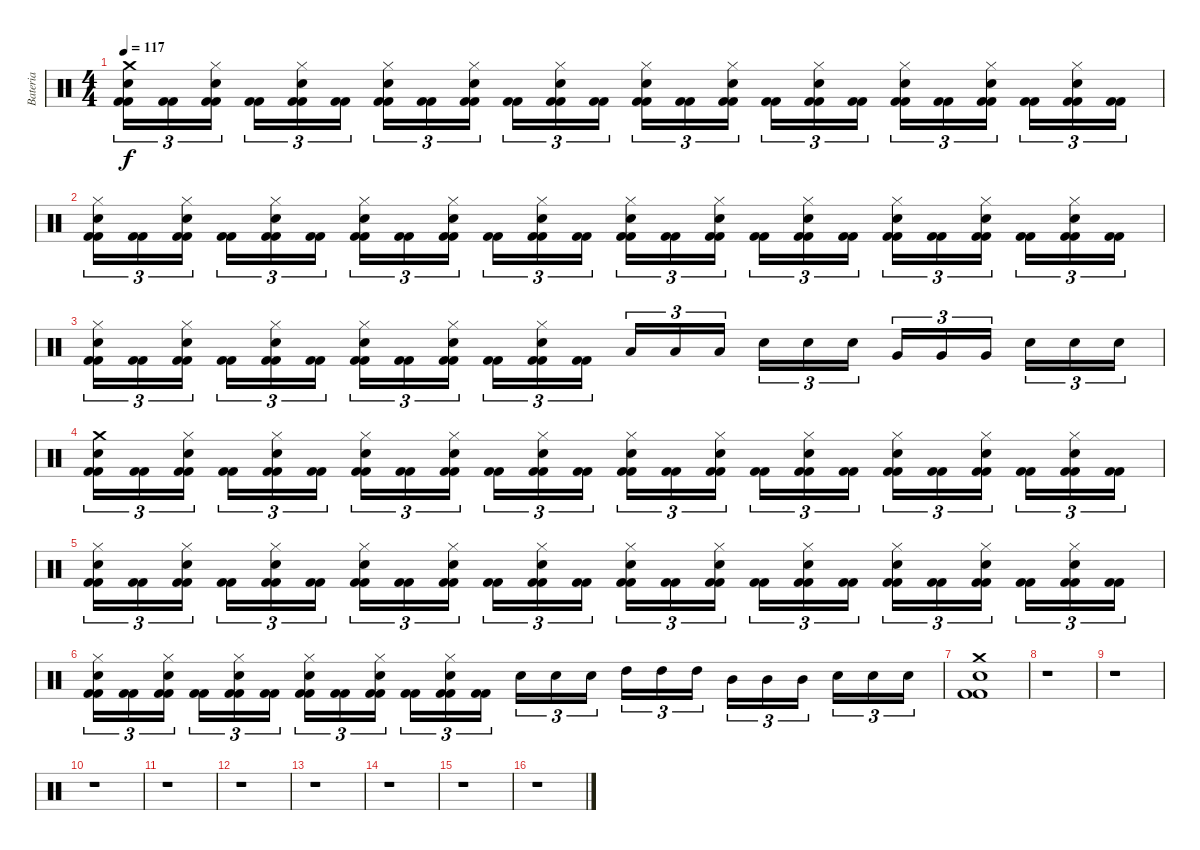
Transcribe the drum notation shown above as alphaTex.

\track ("Bateria" "Bateria") {instrument percussion}
\staff {score}
\articulation defaults
\ts (4 4)
\tempo 117
\clef neutral
\ks c
("Kick (hit) 2" "Kick (hit) 2" "Snare (hit) 2" "Crash medium (hit)").16{tu (3 2) dy f} ("Kick (hit) 2" "Kick (hit) 2").16{tu (3 2)} ("Kick (hit) 2" "Kick (hit) 2" "Snare (hit) 2" "Hi-Hat (closed)").16{tu (3 2)} ("Kick (hit) 2" "Kick (hit) 2").16{tu (3 2)} ("Kick (hit) 2" "Kick (hit) 2" "Snare (hit) 2" "Hi-Hat (closed)").16{tu (3 2)} ("Kick (hit) 2" "Kick (hit) 2").16{tu (3 2)} ("Kick (hit) 2" "Kick (hit) 2" "Snare (hit) 2" "Hi-Hat (closed)").16{tu (3 2)} ("Kick (hit) 2" "Kick (hit) 2").16{tu (3 2)} ("Kick (hit) 2" "Kick (hit) 2" "Snare (hit) 2" "Hi-Hat (closed)").16{tu (3 2)} ("Kick (hit) 2" "Kick (hit) 2").16{tu (3 2)} ("Kick (hit) 2" "Kick (hit) 2" "Snare (hit) 2" "Hi-Hat (closed)").16{tu (3 2)} ("Kick (hit) 2" "Kick (hit) 2").16{tu (3 2)} ("Kick (hit) 2" "Kick (hit) 2" "Snare (hit) 2" "Hi-Hat (closed)").16{tu (3 2)} ("Kick (hit) 2" "Kick (hit) 2").16{tu (3 2)} ("Kick (hit) 2" "Kick (hit) 2" "Snare (hit) 2" "Hi-Hat (closed)").16{tu (3 2)} ("Kick (hit) 2" "Kick (hit) 2").16{tu (3 2)} ("Kick (hit) 2" "Kick (hit) 2" "Snare (hit) 2" "Hi-Hat (closed)").16{tu (3 2)} ("Kick (hit) 2" "Kick (hit) 2").16{tu (3 2)} ("Kick (hit) 2" "Kick (hit) 2" "Snare (hit) 2" "Hi-Hat (closed)").16{tu (3 2)} ("Kick (hit) 2" "Kick (hit) 2").16{tu (3 2)} ("Kick (hit) 2" "Kick (hit) 2" "Snare (hit) 2" "Hi-Hat (closed)").16{tu (3 2)} ("Kick (hit) 2" "Kick (hit) 2").16{tu (3 2)} ("Kick (hit) 2" "Kick (hit) 2" "Snare (hit) 2" "Hi-Hat (closed)").16{tu (3 2)} ("Kick (hit) 2" "Kick (hit) 2").16{tu (3 2)} |
("Kick (hit) 2" "Kick (hit) 2" "Snare (hit) 2" "Hi-Hat (closed)").16{tu (3 2)} ("Kick (hit) 2" "Kick (hit) 2").16{tu (3 2)} ("Kick (hit) 2" "Kick (hit) 2" "Snare (hit) 2" "Hi-Hat (closed)").16{tu (3 2)} ("Kick (hit) 2" "Kick (hit) 2").16{tu (3 2)} ("Kick (hit) 2" "Kick (hit) 2" "Snare (hit) 2" "Hi-Hat (closed)").16{tu (3 2)} ("Kick (hit) 2" "Kick (hit) 2").16{tu (3 2)} ("Kick (hit) 2" "Kick (hit) 2" "Snare (hit) 2" "Hi-Hat (closed)").16{tu (3 2)} ("Kick (hit) 2" "Kick (hit) 2").16{tu (3 2)} ("Kick (hit) 2" "Kick (hit) 2" "Snare (hit) 2" "Hi-Hat (closed)").16{tu (3 2)} ("Kick (hit) 2" "Kick (hit) 2").16{tu (3 2)} ("Kick (hit) 2" "Kick (hit) 2" "Snare (hit) 2" "Hi-Hat (closed)").16{tu (3 2)} ("Kick (hit) 2" "Kick (hit) 2").16{tu (3 2)} ("Kick (hit) 2" "Kick (hit) 2" "Snare (hit) 2" "Hi-Hat (closed)").16{tu (3 2)} ("Kick (hit) 2" "Kick (hit) 2").16{tu (3 2)} ("Kick (hit) 2" "Kick (hit) 2" "Snare (hit) 2" "Hi-Hat (closed)").16{tu (3 2)} ("Kick (hit) 2" "Kick (hit) 2").16{tu (3 2)} ("Kick (hit) 2" "Kick (hit) 2" "Snare (hit) 2" "Hi-Hat (closed)").16{tu (3 2)} ("Kick (hit) 2" "Kick (hit) 2").16{tu (3 2)} ("Kick (hit) 2" "Kick (hit) 2" "Snare (hit) 2" "Hi-Hat (closed)").16{tu (3 2)} ("Kick (hit) 2" "Kick (hit) 2").16{tu (3 2)} ("Kick (hit) 2" "Kick (hit) 2" "Snare (hit) 2" "Hi-Hat (closed)").16{tu (3 2)} ("Kick (hit) 2" "Kick (hit) 2").16{tu (3 2)} ("Kick (hit) 2" "Kick (hit) 2" "Snare (hit) 2" "Hi-Hat (closed)").16{tu (3 2)} ("Kick (hit) 2" "Kick (hit) 2").16{tu (3 2)} |
("Kick (hit) 2" "Kick (hit) 2" "Snare (hit) 2" "Hi-Hat (closed)").16{tu (3 2)} ("Kick (hit) 2" "Kick (hit) 2").16{tu (3 2)} ("Kick (hit) 2" "Kick (hit) 2" "Snare (hit) 2" "Hi-Hat (closed)").16{tu (3 2)} ("Kick (hit) 2" "Kick (hit) 2").16{tu (3 2)} ("Kick (hit) 2" "Kick (hit) 2" "Snare (hit) 2" "Hi-Hat (closed)").16{tu (3 2)} ("Kick (hit) 2" "Kick (hit) 2").16{tu (3 2)} ("Kick (hit) 2" "Kick (hit) 2" "Snare (hit) 2" "Hi-Hat (closed)").16{tu (3 2)} ("Kick (hit) 2" "Kick (hit) 2").16{tu (3 2)} ("Kick (hit) 2" "Kick (hit) 2" "Snare (hit) 2" "Hi-Hat (closed)").16{tu (3 2)} ("Kick (hit) 2" "Kick (hit) 2").16{tu (3 2)} ("Kick (hit) 2" "Kick (hit) 2" "Snare (hit) 2" "Hi-Hat (closed)").16{tu (3 2)} ("Kick (hit) 2" "Kick (hit) 2").16{tu (3 2)} "Low Tom (hit)".16{tu (3 2)} "Low Tom (hit)".16{tu (3 2)} "Low Tom (hit)".16{tu (3 2)} "Snare (hit) 2".16{tu (3 2)} "Snare (hit) 2".16{tu (3 2)} "Snare (hit) 2".16{tu (3 2)} "Very Low Tom (hit)".16{tu (3 2)} "Very Low Tom (hit)".16{tu (3 2)} "Very Low Tom (hit)".16{tu (3 2)} "Snare (hit) 2".16{tu (3 2)} "Snare (hit) 2".16{tu (3 2)} "Snare (hit) 2".16{tu (3 2)} |
("Kick (hit) 2" "Kick (hit) 2" "Snare (hit) 2" "Crash medium (hit)").16{tu (3 2)} ("Kick (hit) 2" "Kick (hit) 2").16{tu (3 2)} ("Kick (hit) 2" "Kick (hit) 2" "Snare (hit) 2" "Hi-Hat (closed)").16{tu (3 2)} ("Kick (hit) 2" "Kick (hit) 2").16{tu (3 2)} ("Kick (hit) 2" "Kick (hit) 2" "Snare (hit) 2" "Hi-Hat (closed)").16{tu (3 2)} ("Kick (hit) 2" "Kick (hit) 2").16{tu (3 2)} ("Kick (hit) 2" "Kick (hit) 2" "Snare (hit) 2" "Hi-Hat (closed)").16{tu (3 2)} ("Kick (hit) 2" "Kick (hit) 2").16{tu (3 2)} ("Kick (hit) 2" "Kick (hit) 2" "Snare (hit) 2" "Hi-Hat (closed)").16{tu (3 2)} ("Kick (hit) 2" "Kick (hit) 2").16{tu (3 2)} ("Kick (hit) 2" "Kick (hit) 2" "Snare (hit) 2" "Hi-Hat (closed)").16{tu (3 2)} ("Kick (hit) 2" "Kick (hit) 2").16{tu (3 2)} ("Kick (hit) 2" "Kick (hit) 2" "Snare (hit) 2" "Hi-Hat (closed)").16{tu (3 2)} ("Kick (hit) 2" "Kick (hit) 2").16{tu (3 2)} ("Kick (hit) 2" "Kick (hit) 2" "Snare (hit) 2" "Hi-Hat (closed)").16{tu (3 2)} ("Kick (hit) 2" "Kick (hit) 2").16{tu (3 2)} ("Kick (hit) 2" "Kick (hit) 2" "Snare (hit) 2" "Hi-Hat (closed)").16{tu (3 2)} ("Kick (hit) 2" "Kick (hit) 2").16{tu (3 2)} ("Kick (hit) 2" "Kick (hit) 2" "Snare (hit) 2" "Hi-Hat (closed)").16{tu (3 2)} ("Kick (hit) 2" "Kick (hit) 2").16{tu (3 2)} ("Kick (hit) 2" "Kick (hit) 2" "Snare (hit) 2" "Hi-Hat (closed)").16{tu (3 2)} ("Kick (hit) 2" "Kick (hit) 2").16{tu (3 2)} ("Kick (hit) 2" "Kick (hit) 2" "Snare (hit) 2" "Hi-Hat (closed)").16{tu (3 2)} ("Kick (hit) 2" "Kick (hit) 2").16{tu (3 2)} |
("Kick (hit) 2" "Kick (hit) 2" "Snare (hit) 2" "Hi-Hat (closed)").16{tu (3 2)} ("Kick (hit) 2" "Kick (hit) 2").16{tu (3 2)} ("Kick (hit) 2" "Kick (hit) 2" "Snare (hit) 2" "Hi-Hat (closed)").16{tu (3 2)} ("Kick (hit) 2" "Kick (hit) 2").16{tu (3 2)} ("Kick (hit) 2" "Kick (hit) 2" "Snare (hit) 2" "Hi-Hat (closed)").16{tu (3 2)} ("Kick (hit) 2" "Kick (hit) 2").16{tu (3 2)} ("Kick (hit) 2" "Kick (hit) 2" "Snare (hit) 2" "Hi-Hat (closed)").16{tu (3 2)} ("Kick (hit) 2" "Kick (hit) 2").16{tu (3 2)} ("Kick (hit) 2" "Kick (hit) 2" "Snare (hit) 2" "Hi-Hat (closed)").16{tu (3 2)} ("Kick (hit) 2" "Kick (hit) 2").16{tu (3 2)} ("Kick (hit) 2" "Kick (hit) 2" "Snare (hit) 2" "Hi-Hat (closed)").16{tu (3 2)} ("Kick (hit) 2" "Kick (hit) 2").16{tu (3 2)} ("Kick (hit) 2" "Kick (hit) 2" "Snare (hit) 2" "Hi-Hat (closed)").16{tu (3 2)} ("Kick (hit) 2" "Kick (hit) 2").16{tu (3 2)} ("Kick (hit) 2" "Kick (hit) 2" "Snare (hit) 2" "Hi-Hat (closed)").16{tu (3 2)} ("Kick (hit) 2" "Kick (hit) 2").16{tu (3 2)} ("Kick (hit) 2" "Kick (hit) 2" "Snare (hit) 2" "Hi-Hat (closed)").16{tu (3 2)} ("Kick (hit) 2" "Kick (hit) 2").16{tu (3 2)} ("Kick (hit) 2" "Kick (hit) 2" "Snare (hit) 2" "Hi-Hat (closed)").16{tu (3 2)} ("Kick (hit) 2" "Kick (hit) 2").16{tu (3 2)} ("Kick (hit) 2" "Kick (hit) 2" "Snare (hit) 2" "Hi-Hat (closed)").16{tu (3 2)} ("Kick (hit) 2" "Kick (hit) 2").16{tu (3 2)} ("Kick (hit) 2" "Kick (hit) 2" "Snare (hit) 2" "Hi-Hat (closed)").16{tu (3 2)} ("Kick (hit) 2" "Kick (hit) 2").16{tu (3 2)} |
("Kick (hit) 2" "Kick (hit) 2" "Snare (hit) 2" "Hi-Hat (closed)").16{tu (3 2)} ("Kick (hit) 2" "Kick (hit) 2").16{tu (3 2)} ("Kick (hit) 2" "Kick (hit) 2" "Snare (hit) 2" "Hi-Hat (closed)").16{tu (3 2)} ("Kick (hit) 2" "Kick (hit) 2").16{tu (3 2)} ("Kick (hit) 2" "Kick (hit) 2" "Snare (hit) 2" "Hi-Hat (closed)").16{tu (3 2)} ("Kick (hit) 2" "Kick (hit) 2").16{tu (3 2)} ("Kick (hit) 2" "Kick (hit) 2" "Snare (hit) 2" "Hi-Hat (closed)").16{tu (3 2)} ("Kick (hit) 2" "Kick (hit) 2").16{tu (3 2)} ("Kick (hit) 2" "Kick (hit) 2" "Snare (hit) 2" "Hi-Hat (closed)").16{tu (3 2)} ("Kick (hit) 2" "Kick (hit) 2").16{tu (3 2)} ("Kick (hit) 2" "Kick (hit) 2" "Snare (hit) 2" "Hi-Hat (closed)").16{tu (3 2)} ("Kick (hit) 2" "Kick (hit) 2").16{tu (3 2)} "Snare (hit) 2".16{tu (3 2)} "Snare (hit) 2".16{tu (3 2)} "Snare (hit) 2".16{tu (3 2)} "High Tom (hit)".16{tu (3 2)} "High Tom (hit)".16{tu (3 2)} "High Tom (hit)".16{tu (3 2)} "Mid Tom (hit)".16{tu (3 2)} "Mid Tom (hit)".16{tu (3 2)} "Mid Tom (hit)".16{tu (3 2)} "Snare (hit) 2".16{tu (3 2)} "Snare (hit) 2".16{tu (3 2)} "Snare (hit) 2".16{tu (3 2)} |
("Kick (hit) 2" "Kick (hit) 2" "Snare (hit) 2" "Crash medium (hit)").1 |
r.1 |
r.1 |
r.1 |
r.1 |
r.1 |
r.1 |
r.1 |
r.1 |
r.1
